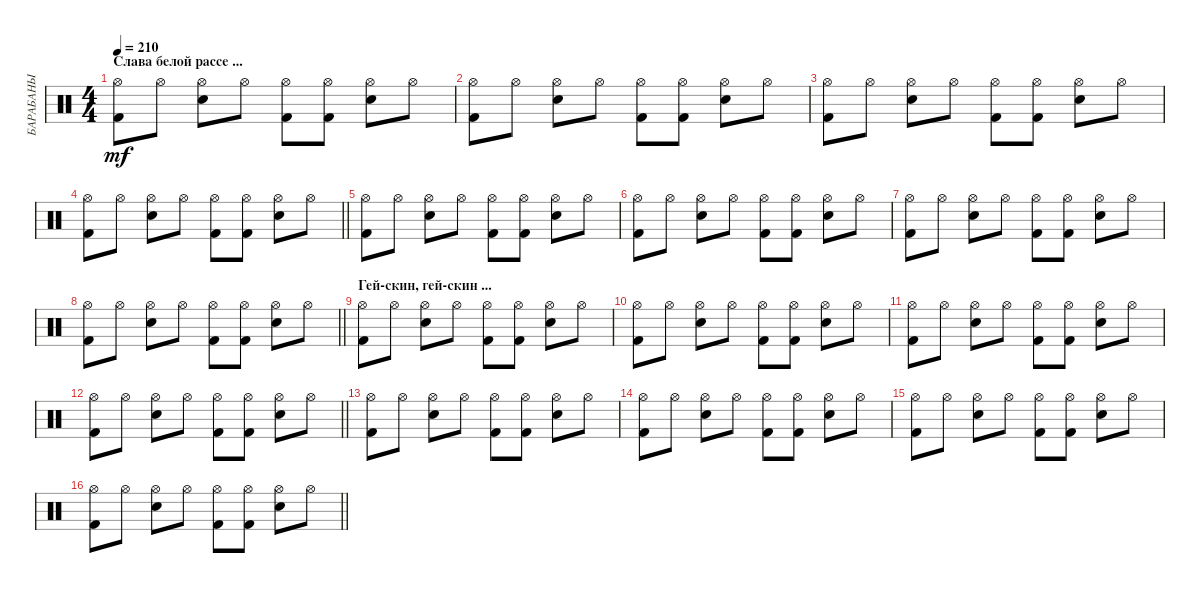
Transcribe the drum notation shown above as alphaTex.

\track ("БАРАБАНЫ" "БАРАБАНЫ") {instrument percussion}
\staff {score}
\articulation defaults
\ts (4 4)
\section ("" "Слава белой рассе ...")
\tempo 210
\clef neutral
\ks c
("Hi-Hat (open)" "Kick (hit) 2").8{dy mf} "Hi-Hat (open)".8 ("Hi-Hat (open)" "Snare (hit) 2").8 "Hi-Hat (open)".8 ("Hi-Hat (open)" "Kick (hit) 2").8 ("Hi-Hat (open)" "Kick (hit) 2").8 ("Hi-Hat (open)" "Snare (hit) 2").8 "Hi-Hat (open)".8 |
("Hi-Hat (open)" "Kick (hit) 2").8 "Hi-Hat (open)".8 ("Hi-Hat (open)" "Snare (hit) 2").8 "Hi-Hat (open)".8 ("Hi-Hat (open)" "Kick (hit) 2").8 ("Hi-Hat (open)" "Kick (hit) 2").8 ("Hi-Hat (open)" "Snare (hit) 2").8 "Hi-Hat (open)".8 |
("Hi-Hat (open)" "Kick (hit) 2").8 "Hi-Hat (open)".8 ("Hi-Hat (open)" "Snare (hit) 2").8 "Hi-Hat (open)".8 ("Hi-Hat (open)" "Kick (hit) 2").8 ("Hi-Hat (open)" "Kick (hit) 2").8 ("Hi-Hat (open)" "Snare (hit) 2").8 "Hi-Hat (open)".8 |
\barLineRight lightlight
("Hi-Hat (open)" "Kick (hit) 2").8 "Hi-Hat (open)".8 ("Hi-Hat (open)" "Snare (hit) 2").8 "Hi-Hat (open)".8 ("Hi-Hat (open)" "Kick (hit) 2").8 ("Hi-Hat (open)" "Kick (hit) 2").8 ("Hi-Hat (open)" "Snare (hit) 2").8 "Hi-Hat (open)".8 |
("Hi-Hat (open)" "Kick (hit) 2").8 "Hi-Hat (open)".8 ("Hi-Hat (open)" "Snare (hit) 2").8 "Hi-Hat (open)".8 ("Hi-Hat (open)" "Kick (hit) 2").8 ("Hi-Hat (open)" "Kick (hit) 2").8 ("Hi-Hat (open)" "Snare (hit) 2").8 "Hi-Hat (open)".8 |
("Hi-Hat (open)" "Kick (hit) 2").8 "Hi-Hat (open)".8 ("Hi-Hat (open)" "Snare (hit) 2").8 "Hi-Hat (open)".8 ("Hi-Hat (open)" "Kick (hit) 2").8 ("Hi-Hat (open)" "Kick (hit) 2").8 ("Hi-Hat (open)" "Snare (hit) 2").8 "Hi-Hat (open)".8 |
("Hi-Hat (open)" "Kick (hit) 2").8 "Hi-Hat (open)".8 ("Hi-Hat (open)" "Snare (hit) 2").8 "Hi-Hat (open)".8 ("Hi-Hat (open)" "Kick (hit) 2").8 ("Hi-Hat (open)" "Kick (hit) 2").8 ("Hi-Hat (open)" "Snare (hit) 2").8 "Hi-Hat (open)".8 |
\barLineRight lightlight
("Hi-Hat (open)" "Kick (hit) 2").8 "Hi-Hat (open)".8 ("Hi-Hat (open)" "Snare (hit) 2").8 "Hi-Hat (open)".8 ("Hi-Hat (open)" "Kick (hit) 2").8 ("Hi-Hat (open)" "Kick (hit) 2").8 ("Hi-Hat (open)" "Snare (hit) 2").8 "Hi-Hat (open)".8 |
\section ("" "Гей-скин, гей-скин ...")
("Hi-Hat (open)" "Kick (hit) 2").8 "Hi-Hat (open)".8 ("Hi-Hat (open)" "Snare (hit) 2").8 "Hi-Hat (open)".8 ("Hi-Hat (open)" "Kick (hit) 2").8 ("Hi-Hat (open)" "Kick (hit) 2").8 ("Hi-Hat (open)" "Snare (hit) 2").8 "Hi-Hat (open)".8 |
("Hi-Hat (open)" "Kick (hit) 2").8 "Hi-Hat (open)".8 ("Hi-Hat (open)" "Snare (hit) 2").8 "Hi-Hat (open)".8 ("Hi-Hat (open)" "Kick (hit) 2").8 ("Hi-Hat (open)" "Kick (hit) 2").8 ("Hi-Hat (open)" "Snare (hit) 2").8 "Hi-Hat (open)".8 |
("Hi-Hat (open)" "Kick (hit) 2").8 "Hi-Hat (open)".8 ("Hi-Hat (open)" "Snare (hit) 2").8 "Hi-Hat (open)".8 ("Hi-Hat (open)" "Kick (hit) 2").8 ("Hi-Hat (open)" "Kick (hit) 2").8 ("Hi-Hat (open)" "Snare (hit) 2").8 "Hi-Hat (open)".8 |
\barLineRight lightlight
("Hi-Hat (open)" "Kick (hit) 2").8 "Hi-Hat (open)".8 ("Hi-Hat (open)" "Snare (hit) 2").8 "Hi-Hat (open)".8 ("Hi-Hat (open)" "Kick (hit) 2").8 ("Hi-Hat (open)" "Kick (hit) 2").8 ("Hi-Hat (open)" "Snare (hit) 2").8 "Hi-Hat (open)".8 |
("Hi-Hat (open)" "Kick (hit) 2").8 "Hi-Hat (open)".8 ("Hi-Hat (open)" "Snare (hit) 2").8 "Hi-Hat (open)".8 ("Hi-Hat (open)" "Kick (hit) 2").8 ("Hi-Hat (open)" "Kick (hit) 2").8 ("Hi-Hat (open)" "Snare (hit) 2").8 "Hi-Hat (open)".8 |
("Hi-Hat (open)" "Kick (hit) 2").8 "Hi-Hat (open)".8 ("Hi-Hat (open)" "Snare (hit) 2").8 "Hi-Hat (open)".8 ("Hi-Hat (open)" "Kick (hit) 2").8 ("Hi-Hat (open)" "Kick (hit) 2").8 ("Hi-Hat (open)" "Snare (hit) 2").8 "Hi-Hat (open)".8 |
("Hi-Hat (open)" "Kick (hit) 2").8 "Hi-Hat (open)".8 ("Hi-Hat (open)" "Snare (hit) 2").8 "Hi-Hat (open)".8 ("Hi-Hat (open)" "Kick (hit) 2").8 ("Hi-Hat (open)" "Kick (hit) 2").8 ("Hi-Hat (open)" "Snare (hit) 2").8 "Hi-Hat (open)".8 |
\barLineRight lightlight
("Hi-Hat (open)" "Kick (hit) 2").8 "Hi-Hat (open)".8 ("Hi-Hat (open)" "Snare (hit) 2").8 "Hi-Hat (open)".8 ("Hi-Hat (open)" "Kick (hit) 2").8 ("Hi-Hat (open)" "Kick (hit) 2").8 ("Hi-Hat (open)" "Snare (hit) 2").8 "Hi-Hat (open)".8
